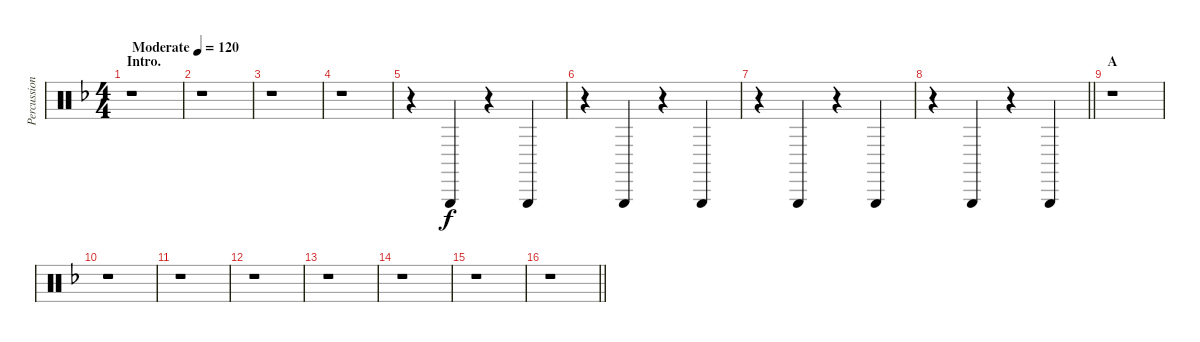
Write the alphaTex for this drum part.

\track ("Percussion" "Percussion") {instrument percussion}
\staff {score}
\articulation defaults
\ts (4 4)
\section ("" "Intro.")
\tempo (120 "Moderate")
\clef neutral
\ks f
r.1{dy f} |
r.1 |
r.1 |
r.1 |
r.4 "Triangle (hit)".4 r.4 "Triangle (hit)".4 |
r.4 "Triangle (hit)".4 r.4 "Triangle (hit)".4 |
r.4 "Triangle (hit)".4 r.4 "Triangle (hit)".4 |
\barLineRight lightlight
r.4 "Triangle (hit)".4 r.4 "Triangle (hit)".4 |
\section ("" "A")
r.1 |
r.1 |
r.1 |
r.1 |
r.1 |
r.1 |
r.1 |
\barLineRight lightlight
r.1
